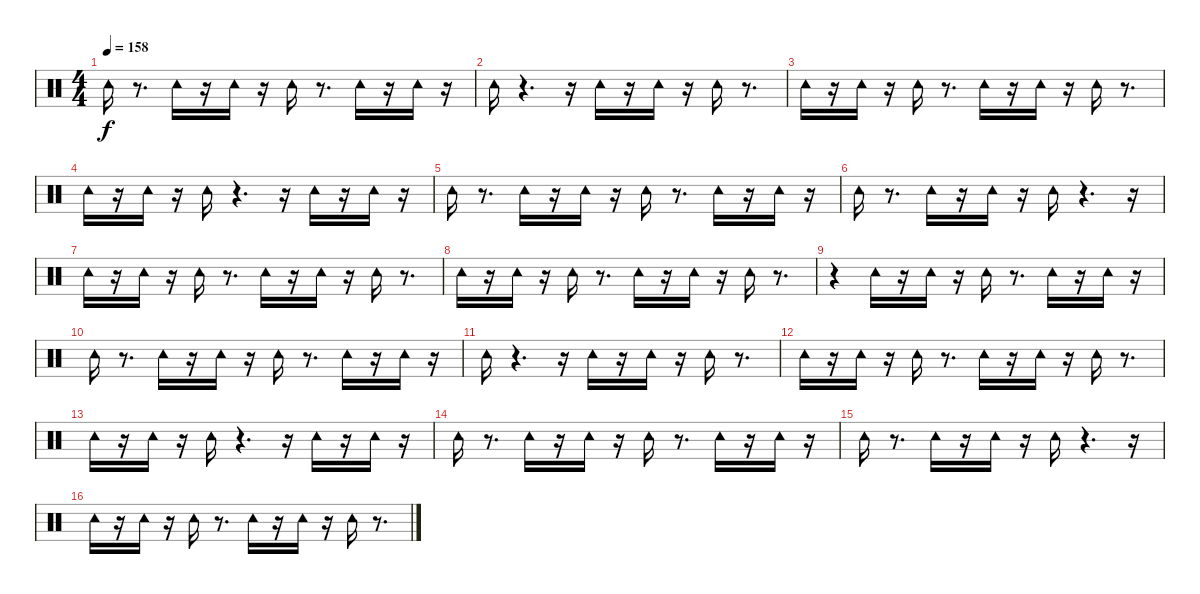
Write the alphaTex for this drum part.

\track "" {instrument percussion}
\staff {score}
\articulation defaults
\ts (4 4)
\tempo 158
\clef neutral
\ks c "Tambourine (hit)".16{dy f}
r.8{d} "Tambourine (hit)".16 r.16 "Tambourine (hit)".16 r.16 "Tambourine (hit)".16 r.8{d} "Tambourine (hit)".16 r.16 "Tambourine (hit)".16 r.16 |
"Tambourine (hit)".16 r.4{d} r.16 "Tambourine (hit)".16 r.16 "Tambourine (hit)".16 r.16 "Tambourine (hit)".16 r.8{d} |
"Tambourine (hit)".16 r.16 "Tambourine (hit)".16 r.16 "Tambourine (hit)".16 r.8{d} "Tambourine (hit)".16 r.16 "Tambourine (hit)".16 r.16 "Tambourine (hit)".16 r.8{d} |
"Tambourine (hit)".16 r.16 "Tambourine (hit)".16 r.16 "Tambourine (hit)".16 r.4{d} r.16 "Tambourine (hit)".16 r.16 "Tambourine (hit)".16 r.16 |
"Tambourine (hit)".16 r.8{d} "Tambourine (hit)".16 r.16 "Tambourine (hit)".16 r.16 "Tambourine (hit)".16 r.8{d} "Tambourine (hit)".16 r.16 "Tambourine (hit)".16 r.16 |
"Tambourine (hit)".16 r.8{d} "Tambourine (hit)".16 r.16 "Tambourine (hit)".16 r.16 "Tambourine (hit)".16 r.4{d} r.16 |
"Tambourine (hit)".16 r.16 "Tambourine (hit)".16 r.16 "Tambourine (hit)".16 r.8{d} "Tambourine (hit)".16 r.16 "Tambourine (hit)".16 r.16 "Tambourine (hit)".16 r.8{d} |
"Tambourine (hit)".16 r.16 "Tambourine (hit)".16 r.16 "Tambourine (hit)".16 r.8{d} "Tambourine (hit)".16 r.16 "Tambourine (hit)".16 r.16 "Tambourine (hit)".16 r.8{d} |
r.4 "Tambourine (hit)".16 r.16 "Tambourine (hit)".16 r.16 "Tambourine (hit)".16 r.8{d} "Tambourine (hit)".16 r.16 "Tambourine (hit)".16 r.16 |
"Tambourine (hit)".16 r.8{d} "Tambourine (hit)".16 r.16 "Tambourine (hit)".16 r.16 "Tambourine (hit)".16 r.8{d} "Tambourine (hit)".16 r.16 "Tambourine (hit)".16 r.16 |
"Tambourine (hit)".16 r.4{d} r.16 "Tambourine (hit)".16 r.16 "Tambourine (hit)".16 r.16 "Tambourine (hit)".16 r.8{d} |
"Tambourine (hit)".16 r.16 "Tambourine (hit)".16 r.16 "Tambourine (hit)".16 r.8{d} "Tambourine (hit)".16 r.16 "Tambourine (hit)".16 r.16 "Tambourine (hit)".16 r.8{d} |
"Tambourine (hit)".16 r.16 "Tambourine (hit)".16 r.16 "Tambourine (hit)".16 r.4{d} r.16 "Tambourine (hit)".16 r.16 "Tambourine (hit)".16 r.16 |
"Tambourine (hit)".16 r.8{d} "Tambourine (hit)".16 r.16 "Tambourine (hit)".16 r.16 "Tambourine (hit)".16 r.8{d} "Tambourine (hit)".16 r.16 "Tambourine (hit)".16 r.16 |
"Tambourine (hit)".16 r.8{d} "Tambourine (hit)".16 r.16 "Tambourine (hit)".16 r.16 "Tambourine (hit)".16 r.4{d} r.16 |
"Tambourine (hit)".16 r.16 "Tambourine (hit)".16 r.16 "Tambourine (hit)".16 r.8{d} "Tambourine (hit)".16 r.16 "Tambourine (hit)".16 r.16 "Tambourine (hit)".16 r.8{d}
